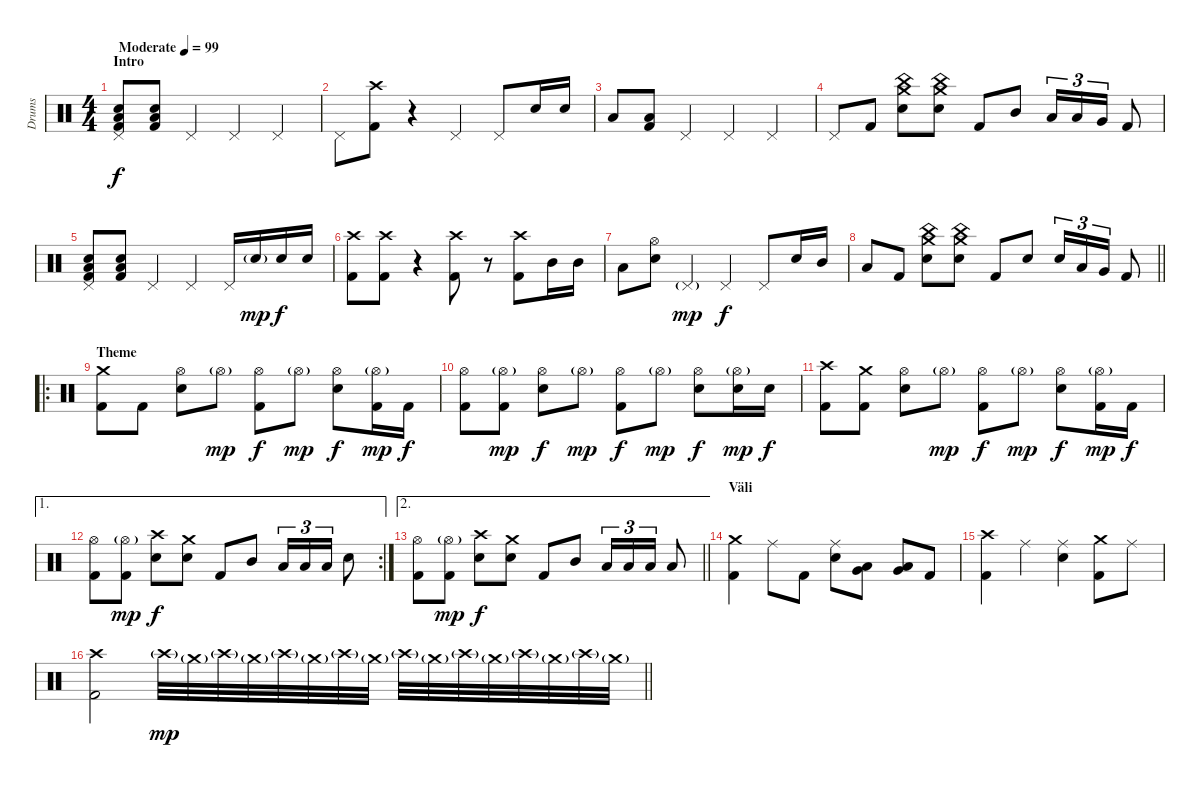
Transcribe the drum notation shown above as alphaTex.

\track ("Drums" "Drums") {instrument percussion}
\staff {score}
\articulation defaults
\ts (4 4)
\section ("" "Intro")
\tempo (99 "Moderate")
\clef neutral
\ks c
("Pedal Hi-Hat (hit)" "Low Floor Tom (hit)" "Electric Snare (hit)" "Kick (hit) 2").8{dy f} ("Low Floor Tom (hit)" "Electric Snare (hit)" "Kick (hit) 2").8 "Pedal Hi-Hat (hit)".4 "Pedal Hi-Hat (hit)".4 "Pedal Hi-Hat (hit)".4 |
"Pedal Hi-Hat (hit)".8 ("Crash high (hit)" "Kick (hit) 2").8 r.4 "Pedal Hi-Hat (hit)".4 "Pedal Hi-Hat (hit)".8 "Electric Snare (hit)".16 "Electric Snare (hit)".16 |
"Low Tom (hit)".8 ("Low Tom (hit)" "Kick (hit) 2").8 "Pedal Hi-Hat (hit)".4 "Pedal Hi-Hat (hit)".4 "Pedal Hi-Hat (hit)".4 |
"Pedal Hi-Hat (hit)".8 "Kick (hit) 2".8 ("Crash medium (hit)" "China (hit)" "Electric Snare (hit)").8 ("Crash medium (hit)" "China (hit)" "Electric Snare (hit)").8 "Kick (hit) 2".8 "Mid Tom (hit)".8 "Low Tom (hit)".16{tu (3 2)} "Low Tom (hit)".16{tu (3 2)} "Very Low Tom (hit)".16{tu (3 2)} "Kick (hit) 2".8 |
("Pedal Hi-Hat (hit)" "Low Floor Tom (hit)" "Electric Snare (hit)" "Kick (hit) 2").8 ("Low Floor Tom (hit)" "Electric Snare (hit)" "Kick (hit) 2").8 "Pedal Hi-Hat (hit)".4 "Pedal Hi-Hat (hit)".4 "Pedal Hi-Hat (hit)".16 "Electric Snare (hit)"{g}.16{dy mp} "Electric Snare (hit)".16{dy f} "Electric Snare (hit)".16 |
("Crash high (hit)" "Kick (hit) 2").8 ("Crash high (hit)" "Kick (hit) 2").8 r.4{volume 0} ("Crash high (hit)" "Kick (hit) 2").8{volume 13} r.8{volume 0} ("Crash high (hit)" "Kick (hit) 2").8{volume 13} "Mid Tom (hit)".16 "Mid Tom (hit)".16 |
"Low Tom (hit)".8 ("Hi-Hat (open)" "Electric Snare (hit)").8 "Pedal Hi-Hat (hit)"{g}.4{dy mp} "Pedal Hi-Hat (hit)".4{dy f} "Pedal Hi-Hat (hit)".8 "Electric Snare (hit)".16 "Mid Tom (hit)".16 |
\barLineRight lightlight "Low Tom (hit)".8 "Kick (hit) 2".8
("Crash medium (hit)" "China (hit)" "Electric Snare (hit)").8 ("Crash medium (hit)" "China (hit)" "Electric Snare (hit)").8 "Kick (hit) 2".8 "Electric Snare (hit)".8 "Electric Snare (hit)".16{tu (3 2)} "Low Tom (hit)".16{tu (3 2)} "Very Low Tom (hit)".16{tu (3 2)} "Kick (hit) 2".8 |
\ro
\section ("" "Theme")
("Crash medium (hit)" "Kick (hit) 2").8 "Kick (hit) 2".8 ("Hi-Hat (open)" "Electric Snare (hit)").8 "Hi-Hat (open)"{g}.8{dy mp} ("Hi-Hat (open)" "Kick (hit) 2").8{dy f} "Hi-Hat (open)"{g}.8{dy mp} ("Hi-Hat (open)" "Electric Snare (hit)").8{dy f} ("Hi-Hat (open)"{g} "Kick (hit) 2").16{dy mp} "Kick (hit) 2".16{dy f} |
("Hi-Hat (open)" "Kick (hit) 2").8 ("Hi-Hat (open)"{g} "Kick (hit) 2").8{dy mp} ("Hi-Hat (open)" "Electric Snare (hit)").8{dy f} "Hi-Hat (open)"{g}.8{dy mp} ("Hi-Hat (open)" "Kick (hit) 2").8{dy f} "Hi-Hat (open)"{g}.8{dy mp} ("Hi-Hat (open)" "Electric Snare (hit)").8{dy f} ("Hi-Hat (open)"{g} "Electric Snare (hit)").16{dy mp} "Electric Snare (hit)".16{dy f} |
("Crash high (hit)" "Kick (hit) 2").8 ("Crash medium (hit)" "Kick (hit) 2").8 ("Hi-Hat (open)" "Electric Snare (hit)").8 "Hi-Hat (open)"{g}.8{dy mp} ("Hi-Hat (open)" "Kick (hit) 2").8{dy f} "Hi-Hat (open)"{g}.8{dy mp} ("Hi-Hat (open)" "Electric Snare (hit)").8{dy f} ("Hi-Hat (open)"{g} "Kick (hit) 2").16{dy mp} "Kick (hit) 2".16{dy f} |
\ae 1
\rc 2
("Hi-Hat (open)" "Kick (hit) 2").8 ("Hi-Hat (open)"{g} "Kick (hit) 2").8{dy mp} ("Crash high (hit)" "Electric Snare (hit)").8{dy f} ("Crash medium (hit)" "Electric Snare (hit)").8 "Kick (hit) 2".8 "Mid Tom (hit)".8 "Low Tom (hit)".16{tu (3 2)} "Low Tom (hit)".16{tu (3 2)} "Low Tom (hit)".16{tu (3 2)} "Electric Snare (hit)".8 |
\ae 2
\barLineRight lightlight
("Hi-Hat (open)" "Kick (hit) 2").8 ("Hi-Hat (open)"{g} "Kick (hit) 2").8{dy mp} ("Crash high (hit)" "Electric Snare (hit)").8{dy f} ("Crash medium (hit)" "Electric Snare (hit)").8 "Kick (hit) 2".8 "Mid Tom (hit)".8 "Low Tom (hit)".16{tu (3 2)} "Low Tom (hit)".16{tu (3 2)} "Low Tom (hit)".16{tu (3 2)} "Low Floor Tom (hit)".8 |
\section ("" "Väli")
("Crash medium (hit)" "Kick (hit) 2").4 "Ride (middle)".8 "Kick (hit) 2".8 ("Ride (middle)" "Electric Snare (hit)").8 ("Low Tom (hit)" "Very Low Tom (hit)").8 ("Low Tom (hit)" "Very Low Tom (hit)").8 "Kick (hit) 2".8 |
("Crash high (hit)" "Kick (hit) 2").4 "Ride (middle)".4 ("Ride (middle)" "Electric Snare (hit)").4 ("Crash medium (hit)" "Kick (hit) 2").8 "Ride (middle)".8 |
\barLineRight lightlight
("Crash high (hit)" "Kick (hit) 2").2 "Crash high (hit)"{g}.32{dy mp volume 4} "Crash medium (hit)"{g}.32{volume 13} "Crash high (hit)"{g}.32 "Crash medium (hit)"{g}.32 "Crash high (hit)"{g}.32 "Crash medium (hit)"{g}.32 "Crash high (hit)"{g}.32 "Crash medium (hit)"{g}.32 "Crash high (hit)"{g}.32 "Crash medium (hit)"{g}.32 "Crash high (hit)"{g}.32 "Crash medium (hit)"{g}.32 "Crash high (hit)"{g}.32 "Crash medium (hit)"{g}.32 "Crash high (hit)"{g}.32 "Crash medium (hit)"{g}.32
